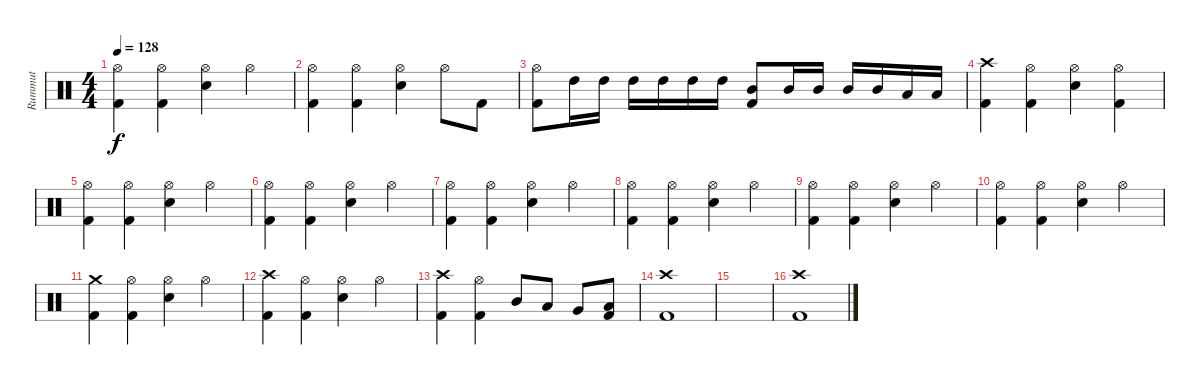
\track ("Rummut" "Rummut") {instrument percussion}
\staff {score}
\articulation defaults
\ts (4 4)
\tempo 128
\clef neutral
\ks aminor
("Hi-Hat (open)" "Kick (hit) 2").4{dy f} ("Hi-Hat (open)" "Kick (hit) 2").4 ("Hi-Hat (open)" "Electric Snare (hit)").4 "Hi-Hat (open)".4 |
("Hi-Hat (open)" "Kick (hit) 2").4 ("Hi-Hat (open)" "Kick (hit) 2").4 ("Hi-Hat (open)" "Electric Snare (hit)").4 "Hi-Hat (open)".8 "Kick (hit) 2".8 |
("Hi-Hat (open)" "Kick (hit) 2").8 "High Tom (hit)".16 "High Tom (hit)".16 "High Tom (hit)".16 "High Tom (hit)".16 "High Tom (hit)".16 "High Tom (hit)".16 ("Mid Tom (hit)" "Kick (hit) 2").8 "Mid Tom (hit)".16 "Mid Tom (hit)".16 "Mid Tom (hit)".16 "Mid Tom (hit)".16 "Low Tom (hit)".16 "Low Tom (hit)".16 |
("Crash high (hit)" "Kick (hit) 2").4 ("Hi-Hat (open)" "Kick (hit) 2").4 ("Hi-Hat (open)" "Electric Snare (hit)").4 ("Hi-Hat (open)" "Kick (hit) 2").4 |
("Hi-Hat (open)" "Kick (hit) 2").4 ("Hi-Hat (open)" "Kick (hit) 2").4 ("Hi-Hat (open)" "Electric Snare (hit)").4 "Hi-Hat (open)".4 |
("Hi-Hat (open)" "Kick (hit) 2").4 ("Hi-Hat (open)" "Kick (hit) 2").4 ("Hi-Hat (open)" "Electric Snare (hit)").4 "Hi-Hat (open)".4 |
("Hi-Hat (open)" "Kick (hit) 2").4 ("Hi-Hat (open)" "Kick (hit) 2").4 ("Hi-Hat (open)" "Electric Snare (hit)").4 "Hi-Hat (open)".4 |
("Hi-Hat (open)" "Kick (hit) 2").4 ("Hi-Hat (open)" "Kick (hit) 2").4 ("Hi-Hat (open)" "Electric Snare (hit)").4 "Hi-Hat (open)".4 |
("Hi-Hat (open)" "Kick (hit) 2").4 ("Hi-Hat (open)" "Kick (hit) 2").4 ("Hi-Hat (open)" "Electric Snare (hit)").4 "Hi-Hat (open)".4 |
("Hi-Hat (open)" "Kick (hit) 2").4 ("Hi-Hat (open)" "Kick (hit) 2").4 ("Hi-Hat (open)" "Electric Snare (hit)").4 "Hi-Hat (open)".4 |
("Crash medium (hit)" "Kick (hit) 2").4 ("Hi-Hat (open)" "Kick (hit) 2").4 ("Hi-Hat (open)" "Electric Snare (hit)").4 "Hi-Hat (open)".4 |
("Crash high (hit)" "Kick (hit) 2").4 ("Hi-Hat (open)" "Kick (hit) 2").4 ("Hi-Hat (open)" "Electric Snare (hit)").4 "Hi-Hat (open)".4 |
("Crash high (hit)" "Kick (hit) 2").4 ("Hi-Hat (open)" "Kick (hit) 2").4 "Mid Tom (hit)".8 "Low Tom (hit)".8 "Very Low Tom (hit)".8 ("Low Floor Tom (hit)" "Kick (hit) 2").8 |
("Crash high (hit)" "Kick (hit) 2").1 |
|
("Crash high (hit)" "Kick (hit) 2").1
